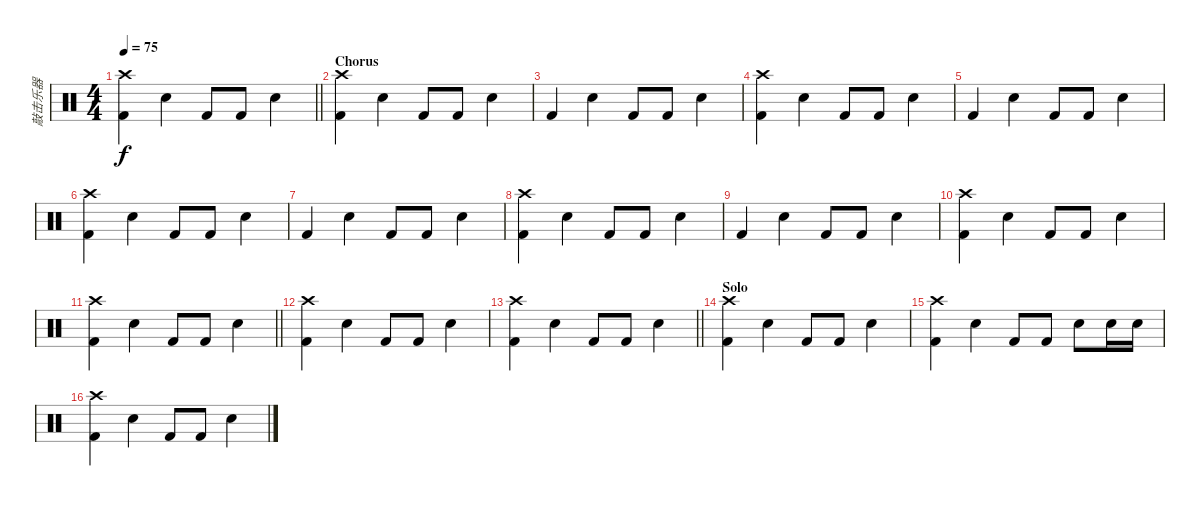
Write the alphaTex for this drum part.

\track ("敲击乐器" "敲击乐器") {instrument percussion}
\staff {score}
\articulation defaults
\ts (4 4)
\tempo 75
\clef neutral
\barLineRight lightlight
\ks c
("Crash high (hit)" "Kick (hit) 2").4{dy f} "Snare (hit) 2".4 "Kick (hit) 2".8 "Kick (hit) 2".8 "Snare (hit) 2".4 |
\section ("" "Chorus")
("Crash high (hit)" "Kick (hit) 2").4 "Snare (hit) 2".4 "Kick (hit) 2".8 "Kick (hit) 2".8 "Snare (hit) 2".4 |
"Kick (hit) 2".4 "Snare (hit) 2".4 "Kick (hit) 2".8 "Kick (hit) 2".8 "Snare (hit) 2".4 |
("Crash high (hit)" "Kick (hit) 2").4 "Snare (hit) 2".4 "Kick (hit) 2".8 "Kick (hit) 2".8 "Snare (hit) 2".4 |
"Kick (hit) 2".4 "Snare (hit) 2".4 "Kick (hit) 2".8 "Kick (hit) 2".8 "Snare (hit) 2".4 |
("Crash high (hit)" "Kick (hit) 2").4 "Snare (hit) 2".4 "Kick (hit) 2".8 "Kick (hit) 2".8 "Snare (hit) 2".4 |
"Kick (hit) 2".4 "Snare (hit) 2".4 "Kick (hit) 2".8 "Kick (hit) 2".8 "Snare (hit) 2".4 |
("Crash high (hit)" "Kick (hit) 2").4 "Snare (hit) 2".4 "Kick (hit) 2".8 "Kick (hit) 2".8 "Snare (hit) 2".4 |
"Kick (hit) 2".4 "Snare (hit) 2".4 "Kick (hit) 2".8 "Kick (hit) 2".8 "Snare (hit) 2".4 |
("Crash high (hit)" "Kick (hit) 2").4 "Snare (hit) 2".4 "Kick (hit) 2".8 "Kick (hit) 2".8 "Snare (hit) 2".4 |
\barLineRight lightlight
("Crash high (hit)" "Kick (hit) 2").4 "Snare (hit) 2".4 "Kick (hit) 2".8 "Kick (hit) 2".8 "Snare (hit) 2".4 |
("Crash high (hit)" "Kick (hit) 2").4 "Snare (hit) 2".4 "Kick (hit) 2".8 "Kick (hit) 2".8 "Snare (hit) 2".4 |
\barLineRight lightlight
("Crash high (hit)" "Kick (hit) 2").4 "Snare (hit) 2".4 "Kick (hit) 2".8 "Kick (hit) 2".8 "Snare (hit) 2".4 |
\section ("" "Solo")
("Crash high (hit)" "Kick (hit) 2").4 "Snare (hit) 2".4 "Kick (hit) 2".8 "Kick (hit) 2".8 "Snare (hit) 2".4 |
("Crash high (hit)" "Kick (hit) 2").4 "Snare (hit) 2".4 "Kick (hit) 2".8 "Kick (hit) 2".8 "Snare (hit) 2".8 "Snare (hit) 2".16 "Snare (hit) 2".16 |
("Crash high (hit)" "Kick (hit) 2").4 "Snare (hit) 2".4 "Kick (hit) 2".8 "Kick (hit) 2".8 "Snare (hit) 2".4
